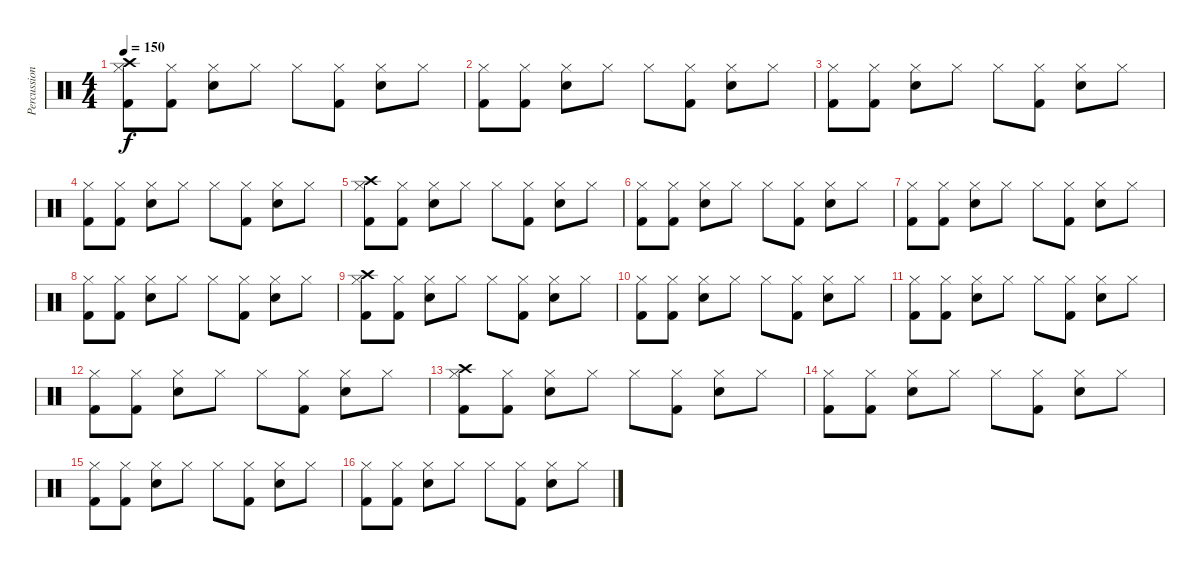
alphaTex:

\track ("Percussion" "Percussion") {instrument percussion}
\staff {score}
\articulation defaults
\ts (4 4)
\tempo 150
\clef neutral
\ks c
("Hi-Hat (closed)" "Kick (hit) 2" "Crash high (hit)").8{dy f} ("Hi-Hat (closed)" "Kick (hit) 2").8 ("Hi-Hat (closed)" "Electric Snare (hit)").8 "Hi-Hat (closed)".8 "Hi-Hat (closed)".8 ("Hi-Hat (closed)" "Kick (hit) 2").8 ("Hi-Hat (closed)" "Electric Snare (hit)").8 "Hi-Hat (closed)".8 |
("Hi-Hat (closed)" "Kick (hit) 2").8 ("Hi-Hat (closed)" "Kick (hit) 2").8 ("Hi-Hat (closed)" "Electric Snare (hit)").8 "Hi-Hat (closed)".8 "Hi-Hat (closed)".8 ("Hi-Hat (closed)" "Kick (hit) 2").8 ("Hi-Hat (closed)" "Electric Snare (hit)").8 "Hi-Hat (closed)".8 |
("Hi-Hat (closed)" "Kick (hit) 2").8 ("Hi-Hat (closed)" "Kick (hit) 2").8 ("Hi-Hat (closed)" "Electric Snare (hit)").8 "Hi-Hat (closed)".8 "Hi-Hat (closed)".8 ("Hi-Hat (closed)" "Kick (hit) 2").8 ("Hi-Hat (closed)" "Electric Snare (hit)").8 "Hi-Hat (closed)".8 |
("Hi-Hat (closed)" "Kick (hit) 2").8 ("Hi-Hat (closed)" "Kick (hit) 2").8 ("Hi-Hat (closed)" "Electric Snare (hit)").8 "Hi-Hat (closed)".8 "Hi-Hat (closed)".8 ("Hi-Hat (closed)" "Kick (hit) 2").8 ("Hi-Hat (closed)" "Electric Snare (hit)").8 "Hi-Hat (closed)".8 |
("Hi-Hat (closed)" "Kick (hit) 2" "Crash high (hit)").8 ("Hi-Hat (closed)" "Kick (hit) 2").8 ("Hi-Hat (closed)" "Electric Snare (hit)").8 "Hi-Hat (closed)".8 "Hi-Hat (closed)".8 ("Hi-Hat (closed)" "Kick (hit) 2").8 ("Hi-Hat (closed)" "Electric Snare (hit)").8 "Hi-Hat (closed)".8 |
("Hi-Hat (closed)" "Kick (hit) 2").8 ("Hi-Hat (closed)" "Kick (hit) 2").8 ("Hi-Hat (closed)" "Electric Snare (hit)").8 "Hi-Hat (closed)".8 "Hi-Hat (closed)".8 ("Hi-Hat (closed)" "Kick (hit) 2").8 ("Hi-Hat (closed)" "Electric Snare (hit)").8 "Hi-Hat (closed)".8 |
("Hi-Hat (closed)" "Kick (hit) 2").8 ("Hi-Hat (closed)" "Kick (hit) 2").8 ("Hi-Hat (closed)" "Electric Snare (hit)").8 "Hi-Hat (closed)".8 "Hi-Hat (closed)".8 ("Hi-Hat (closed)" "Kick (hit) 2").8 ("Hi-Hat (closed)" "Electric Snare (hit)").8 "Hi-Hat (closed)".8 |
("Hi-Hat (closed)" "Kick (hit) 2").8 ("Hi-Hat (closed)" "Kick (hit) 2").8 ("Hi-Hat (closed)" "Electric Snare (hit)").8 "Hi-Hat (closed)".8 "Hi-Hat (closed)".8 ("Hi-Hat (closed)" "Kick (hit) 2").8 ("Hi-Hat (closed)" "Electric Snare (hit)").8 "Hi-Hat (closed)".8 |
("Hi-Hat (closed)" "Kick (hit) 2" "Crash high (hit)").8 ("Hi-Hat (closed)" "Kick (hit) 2").8 ("Hi-Hat (closed)" "Electric Snare (hit)").8 "Hi-Hat (closed)".8 "Hi-Hat (closed)".8 ("Hi-Hat (closed)" "Kick (hit) 2").8 ("Hi-Hat (closed)" "Electric Snare (hit)").8 "Hi-Hat (closed)".8 |
("Hi-Hat (closed)" "Kick (hit) 2").8 ("Hi-Hat (closed)" "Kick (hit) 2").8 ("Hi-Hat (closed)" "Electric Snare (hit)").8 "Hi-Hat (closed)".8 "Hi-Hat (closed)".8 ("Hi-Hat (closed)" "Kick (hit) 2").8 ("Hi-Hat (closed)" "Electric Snare (hit)").8 "Hi-Hat (closed)".8 |
("Hi-Hat (closed)" "Kick (hit) 2").8 ("Hi-Hat (closed)" "Kick (hit) 2").8 ("Hi-Hat (closed)" "Electric Snare (hit)").8 "Hi-Hat (closed)".8 "Hi-Hat (closed)".8 ("Hi-Hat (closed)" "Kick (hit) 2").8 ("Hi-Hat (closed)" "Electric Snare (hit)").8 "Hi-Hat (closed)".8 |
("Hi-Hat (closed)" "Kick (hit) 2").8 ("Hi-Hat (closed)" "Kick (hit) 2").8 ("Hi-Hat (closed)" "Electric Snare (hit)").8 "Hi-Hat (closed)".8 "Hi-Hat (closed)".8 ("Hi-Hat (closed)" "Kick (hit) 2").8 ("Hi-Hat (closed)" "Electric Snare (hit)").8 "Hi-Hat (closed)".8 |
("Hi-Hat (closed)" "Kick (hit) 2" "Crash high (hit)").8 ("Hi-Hat (closed)" "Kick (hit) 2").8 ("Hi-Hat (closed)" "Electric Snare (hit)").8 "Hi-Hat (closed)".8 "Hi-Hat (closed)".8 ("Hi-Hat (closed)" "Kick (hit) 2").8 ("Hi-Hat (closed)" "Electric Snare (hit)").8 "Hi-Hat (closed)".8 |
("Hi-Hat (closed)" "Kick (hit) 2").8 ("Hi-Hat (closed)" "Kick (hit) 2").8 ("Hi-Hat (closed)" "Electric Snare (hit)").8 "Hi-Hat (closed)".8 "Hi-Hat (closed)".8 ("Hi-Hat (closed)" "Kick (hit) 2").8 ("Hi-Hat (closed)" "Electric Snare (hit)").8 "Hi-Hat (closed)".8 |
("Hi-Hat (closed)" "Kick (hit) 2").8 ("Hi-Hat (closed)" "Kick (hit) 2").8 ("Hi-Hat (closed)" "Electric Snare (hit)").8 "Hi-Hat (closed)".8 "Hi-Hat (closed)".8 ("Hi-Hat (closed)" "Kick (hit) 2").8 ("Hi-Hat (closed)" "Electric Snare (hit)").8 "Hi-Hat (closed)".8 |
("Hi-Hat (closed)" "Kick (hit) 2").8 ("Hi-Hat (closed)" "Kick (hit) 2").8 ("Hi-Hat (closed)" "Electric Snare (hit)").8 "Hi-Hat (closed)".8 "Hi-Hat (closed)".8 ("Hi-Hat (closed)" "Kick (hit) 2").8 ("Hi-Hat (closed)" "Electric Snare (hit)").8 "Hi-Hat (closed)".8
